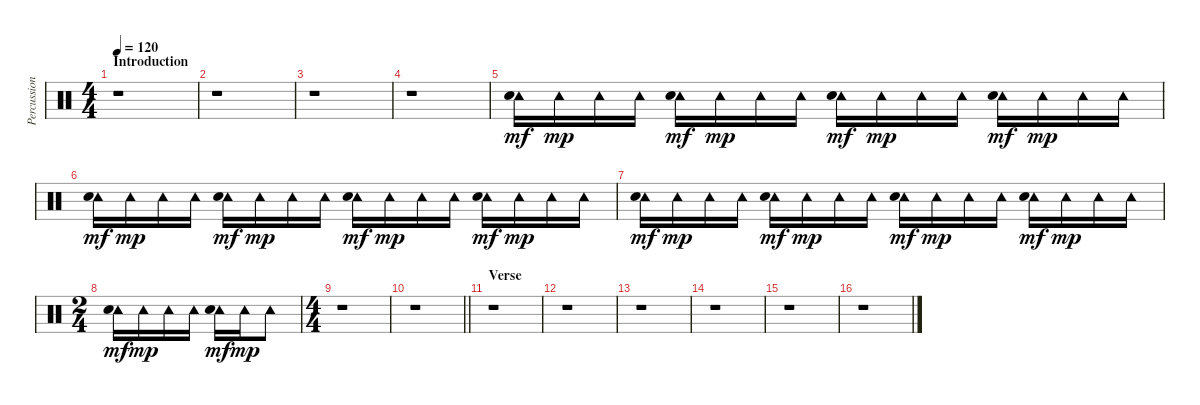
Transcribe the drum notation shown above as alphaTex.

\track ("Percussion" "Percussion") {instrument percussion}
\staff {score}
\articulation defaults
\ts (4 4)
\section ("" "Introduction")
\tempo 120
\clef neutral
\ks c
r.1{dy mf} |
r.1 |
r.1 |
r.1 |
("Tambourine (hit)" "Hand Clap (hit)").16 "Tambourine (hit)".16{dy mp} "Tambourine (hit)".16 "Tambourine (hit)".16 ("Tambourine (hit)" "Hand Clap (hit)").16{dy mf} "Tambourine (hit)".16{dy mp} "Tambourine (hit)".16 "Tambourine (hit)".16 ("Tambourine (hit)" "Hand Clap (hit)").16{dy mf} "Tambourine (hit)".16{dy mp} "Tambourine (hit)".16 "Tambourine (hit)".16 ("Tambourine (hit)" "Hand Clap (hit)").16{dy mf} "Tambourine (hit)".16{dy mp} "Tambourine (hit)".16 "Tambourine (hit)".16 |
("Tambourine (hit)" "Hand Clap (hit)").16{dy mf} "Tambourine (hit)".16{dy mp} "Tambourine (hit)".16 "Tambourine (hit)".16 ("Tambourine (hit)" "Hand Clap (hit)").16{dy mf} "Tambourine (hit)".16{dy mp} "Tambourine (hit)".16 "Tambourine (hit)".16 ("Tambourine (hit)" "Hand Clap (hit)").16{dy mf} "Tambourine (hit)".16{dy mp} "Tambourine (hit)".16 "Tambourine (hit)".16 ("Tambourine (hit)" "Hand Clap (hit)").16{dy mf} "Tambourine (hit)".16{dy mp} "Tambourine (hit)".16 "Tambourine (hit)".16 |
("Tambourine (hit)" "Hand Clap (hit)").16{dy mf} "Tambourine (hit)".16{dy mp} "Tambourine (hit)".16 "Tambourine (hit)".16 ("Tambourine (hit)" "Hand Clap (hit)").16{dy mf} "Tambourine (hit)".16{dy mp} "Tambourine (hit)".16 "Tambourine (hit)".16 ("Tambourine (hit)" "Hand Clap (hit)").16{dy mf} "Tambourine (hit)".16{dy mp} "Tambourine (hit)".16 "Tambourine (hit)".16 ("Tambourine (hit)" "Hand Clap (hit)").16{dy mf} "Tambourine (hit)".16{dy mp} "Tambourine (hit)".16 "Tambourine (hit)".16 |
\ts (2 4)
("Tambourine (hit)" "Hand Clap (hit)").16{dy mf} "Tambourine (hit)".16{dy mp} "Tambourine (hit)".16 "Tambourine (hit)".16 ("Tambourine (hit)" "Hand Clap (hit)").16{dy mf} "Tambourine (hit)".16{dy mp} "Tambourine (hit)".8 |
\ts (4 4)
r.1 |
\barLineRight lightlight
r.1 |
\section ("" "Verse")
r.1 |
r.1 |
r.1 |
r.1 |
r.1 |
r.1
